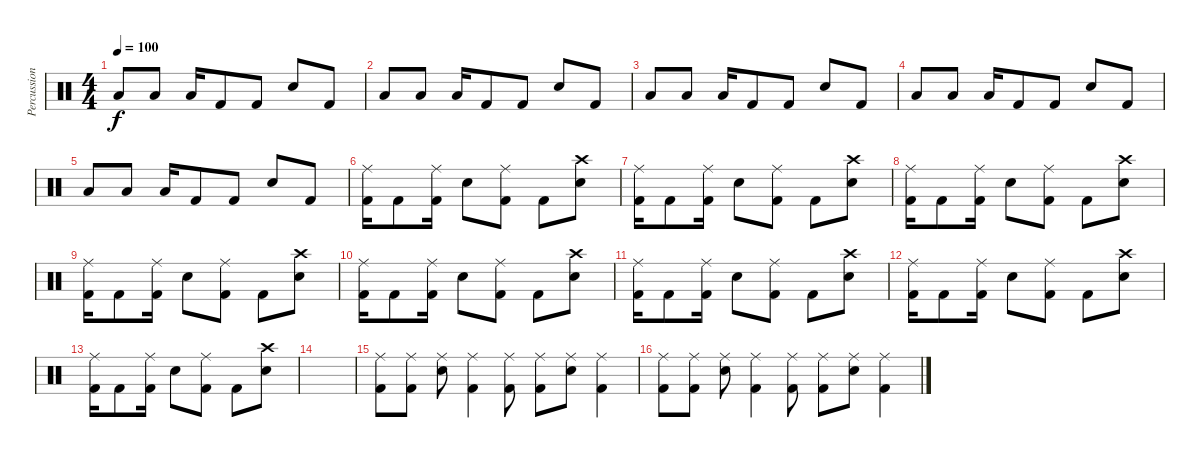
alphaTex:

\track ("Percussion" "Percussion") {instrument percussion}
\staff {score}
\articulation defaults
\ts (4 4)
\tempo 100
\clef neutral
\ks c "Low Tom (hit)".8{dy f} "Low Tom (hit)".8 "Low Tom (hit)".16 "Kick (hit) 2".8 "Kick (hit) 2".8 "Electric Snare (hit)".8 "Kick (hit) 2".8
|
"Low Tom (hit)".8 "Low Tom (hit)".8 "Low Tom (hit)".16 "Kick (hit) 2".8 "Kick (hit) 2".8 "Electric Snare (hit)".8 "Kick (hit) 2".8 |
"Low Tom (hit)".8 "Low Tom (hit)".8 "Low Tom (hit)".16 "Kick (hit) 2".8 "Kick (hit) 2".8 "Electric Snare (hit)".8 "Kick (hit) 2".8 |
"Low Tom (hit)".8 "Low Tom (hit)".8 "Low Tom (hit)".16 "Kick (hit) 2".8 "Kick (hit) 2".8 "Electric Snare (hit)".8 "Kick (hit) 2".8 |
"Low Tom (hit)".8 "Low Tom (hit)".8 "Low Tom (hit)".16 "Kick (hit) 2".8 "Kick (hit) 2".8 "Electric Snare (hit)".8 "Kick (hit) 2".8 |
("Ride (middle)" "Kick (hit) 2").16 "Kick (hit) 2".8 ("Ride (middle)" "Kick (hit) 2").16 "Electric Snare (hit)".8 ("Ride (middle)" "Kick (hit) 2").8 "Kick (hit) 2".8 ("Crash high (hit)" "Electric Snare (hit)").8 |
("Ride (middle)" "Kick (hit) 2").16 "Kick (hit) 2".8 ("Ride (middle)" "Kick (hit) 2").16 "Electric Snare (hit)".8 ("Ride (middle)" "Kick (hit) 2").8 "Kick (hit) 2".8 ("Crash high (hit)" "Electric Snare (hit)").8 |
("Ride (middle)" "Kick (hit) 2").16 "Kick (hit) 2".8 ("Ride (middle)" "Kick (hit) 2").16 "Electric Snare (hit)".8 ("Ride (middle)" "Kick (hit) 2").8 "Kick (hit) 2".8 ("Crash high (hit)" "Electric Snare (hit)").8 |
("Ride (middle)" "Kick (hit) 2").16 "Kick (hit) 2".8 ("Ride (middle)" "Kick (hit) 2").16 "Electric Snare (hit)".8 ("Ride (middle)" "Kick (hit) 2").8 "Kick (hit) 2".8 ("Crash high (hit)" "Electric Snare (hit)").8 |
("Ride (middle)" "Kick (hit) 2").16 "Kick (hit) 2".8 ("Ride (middle)" "Kick (hit) 2").16 "Electric Snare (hit)".8 ("Ride (middle)" "Kick (hit) 2").8 "Kick (hit) 2".8 ("Crash high (hit)" "Electric Snare (hit)").8 |
("Ride (middle)" "Kick (hit) 2").16 "Kick (hit) 2".8 ("Ride (middle)" "Kick (hit) 2").16 "Electric Snare (hit)".8 ("Ride (middle)" "Kick (hit) 2").8 "Kick (hit) 2".8 ("Crash high (hit)" "Electric Snare (hit)").8 |
("Ride (middle)" "Kick (hit) 2").16 "Kick (hit) 2".8 ("Ride (middle)" "Kick (hit) 2").16 "Electric Snare (hit)".8 ("Ride (middle)" "Kick (hit) 2").8 "Kick (hit) 2".8 ("Crash high (hit)" "Electric Snare (hit)").8 |
("Ride (middle)" "Kick (hit) 2").16 "Kick (hit) 2".8 ("Ride (middle)" "Kick (hit) 2").16 "Electric Snare (hit)".8 ("Ride (middle)" "Kick (hit) 2").8 "Kick (hit) 2".8 ("Crash high (hit)" "Electric Snare (hit)").8 |
|
("Ride (middle)" "Kick (hit) 2").8 ("Ride (middle)" "Kick (hit) 2").8 ("Ride (middle)" "Electric Snare (hit)").8 ("Ride (middle)" "Kick (hit) 2").4 ("Ride (middle)" "Kick (hit) 2").8 ("Ride (middle)" "Kick (hit) 2").8 ("Ride (middle)" "Electric Snare (hit)").8 ("Ride (middle)" "Kick (hit) 2").4 |
("Ride (middle)" "Kick (hit) 2").8 ("Ride (middle)" "Kick (hit) 2").8 ("Ride (middle)" "Electric Snare (hit)").8 ("Ride (middle)" "Kick (hit) 2").4 ("Ride (middle)" "Kick (hit) 2").8 ("Ride (middle)" "Kick (hit) 2").8 ("Ride (middle)" "Electric Snare (hit)").8 ("Ride (middle)" "Kick (hit) 2").4
